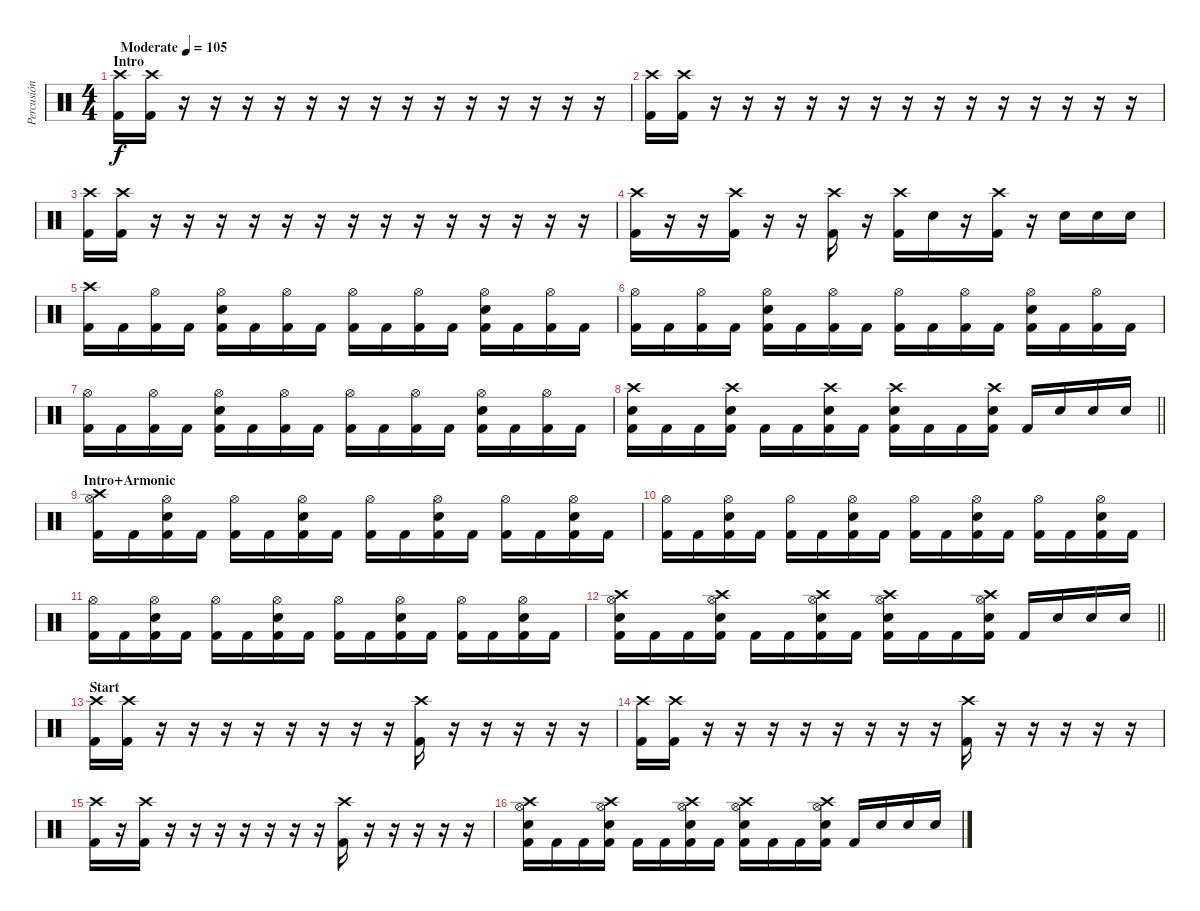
\track ("Percusión" "Percusión") {instrument percussion}
\staff {score}
\articulation defaults
\ts (4 4)
\section ("" "Intro")
\tempo (105 "Moderate")
\clef neutral
\ks c
("Crash high (hit)" "Kick (hit) 2").16{dy f} ("Crash high (hit)" "Kick (hit) 2").16 r.16 r.16 r.16 r.16 r.16 r.16 r.16 r.16 r.16 r.16 r.16 r.16 r.16 r.16 |
("Crash high (hit)" "Kick (hit) 2").16 ("Crash high (hit)" "Kick (hit) 2").16 r.16 r.16 r.16 r.16 r.16 r.16 r.16 r.16 r.16 r.16 r.16 r.16 r.16 r.16 |
("Crash high (hit)" "Kick (hit) 2").16 ("Crash high (hit)" "Kick (hit) 2").16 r.16 r.16 r.16 r.16 r.16 r.16 r.16 r.16 r.16 r.16 r.16 r.16 r.16 r.16 |
("Crash high (hit)" "Kick (hit) 2").16 r.16 r.16 ("Crash high (hit)" "Kick (hit) 2").16 r.16 r.16 ("Crash high (hit)" "Kick (hit) 2").16 r.16 ("Crash high (hit)" "Kick (hit) 2").16 "Snare (hit) 2".16 r.16 ("Crash high (hit)" "Kick (hit) 2").16 r.16 "Snare (hit) 2".16 "Snare (hit) 2".16 "Snare (hit) 2".16 |
("Crash high (hit)" "Kick (hit) 2").16 "Kick (hit) 2".16 ("Hi-Hat (open)" "Kick (hit) 2").16 "Kick (hit) 2".16 ("Hi-Hat (open)" "Snare (hit) 2" "Kick (hit) 2").16 "Kick (hit) 2".16 ("Hi-Hat (open)" "Kick (hit) 2").16 "Kick (hit) 2".16 ("Hi-Hat (open)" "Kick (hit) 2").16 "Kick (hit) 2".16 ("Hi-Hat (open)" "Kick (hit) 2").16 "Kick (hit) 2".16 ("Hi-Hat (open)" "Snare (hit) 2" "Kick (hit) 2").16 "Kick (hit) 2".16 ("Hi-Hat (open)" "Kick (hit) 2").16 "Kick (hit) 2".16 |
("Hi-Hat (open)" "Kick (hit) 2").16 "Kick (hit) 2".16 ("Hi-Hat (open)" "Kick (hit) 2").16 "Kick (hit) 2".16 ("Hi-Hat (open)" "Snare (hit) 2" "Kick (hit) 2").16 "Kick (hit) 2".16 ("Hi-Hat (open)" "Kick (hit) 2").16 "Kick (hit) 2".16 ("Hi-Hat (open)" "Kick (hit) 2").16 "Kick (hit) 2".16 ("Hi-Hat (open)" "Kick (hit) 2").16 "Kick (hit) 2".16 ("Hi-Hat (open)" "Snare (hit) 2" "Kick (hit) 2").16 "Kick (hit) 2".16 ("Hi-Hat (open)" "Kick (hit) 2").16 "Kick (hit) 2".16 |
("Hi-Hat (open)" "Kick (hit) 2").16 "Kick (hit) 2".16 ("Hi-Hat (open)" "Kick (hit) 2").16 "Kick (hit) 2".16 ("Hi-Hat (open)" "Snare (hit) 2" "Kick (hit) 2").16 "Kick (hit) 2".16 ("Hi-Hat (open)" "Kick (hit) 2").16 "Kick (hit) 2".16 ("Hi-Hat (open)" "Kick (hit) 2").16 "Kick (hit) 2".16 ("Hi-Hat (open)" "Kick (hit) 2").16 "Kick (hit) 2".16 ("Hi-Hat (open)" "Snare (hit) 2" "Kick (hit) 2").16 "Kick (hit) 2".16 ("Hi-Hat (open)" "Kick (hit) 2").16 "Kick (hit) 2".16 |
\barLineRight lightlight
("Crash high (hit)" "Snare (hit) 2" "Kick (hit) 2").16 "Kick (hit) 2".16 "Kick (hit) 2".16 ("Crash high (hit)" "Snare (hit) 2" "Kick (hit) 2").16 "Kick (hit) 2".16 "Kick (hit) 2".16 ("Crash high (hit)" "Snare (hit) 2" "Kick (hit) 2").16 "Kick (hit) 2".16 ("Crash high (hit)" "Snare (hit) 2" "Kick (hit) 2").16 "Kick (hit) 2".16 "Kick (hit) 2".16 ("Crash high (hit)" "Snare (hit) 2" "Kick (hit) 2").16 "Kick (hit) 2".16 "Snare (hit) 2".16 "Snare (hit) 2".16 "Snare (hit) 2".16 |
\section ("" "Intro+Armonic")
("Crash high (hit)" "Hi-Hat (open)" "Kick (hit) 2").16 "Kick (hit) 2".16 ("Hi-Hat (open)" "Snare (hit) 2" "Kick (hit) 2").16 "Kick (hit) 2".16 ("Hi-Hat (open)" "Kick (hit) 2").16 "Kick (hit) 2".16 ("Hi-Hat (open)" "Snare (hit) 2" "Kick (hit) 2").16 "Kick (hit) 2".16 ("Hi-Hat (open)" "Kick (hit) 2").16 "Kick (hit) 2".16 ("Hi-Hat (open)" "Snare (hit) 2" "Kick (hit) 2").16 "Kick (hit) 2".16 ("Hi-Hat (open)" "Kick (hit) 2").16 "Kick (hit) 2".16 ("Hi-Hat (open)" "Snare (hit) 2" "Kick (hit) 2").16 "Kick (hit) 2".16 |
("Hi-Hat (open)" "Kick (hit) 2").16 "Kick (hit) 2".16 ("Hi-Hat (open)" "Snare (hit) 2" "Kick (hit) 2").16 "Kick (hit) 2".16 ("Hi-Hat (open)" "Kick (hit) 2").16 "Kick (hit) 2".16 ("Hi-Hat (open)" "Snare (hit) 2" "Kick (hit) 2").16 "Kick (hit) 2".16 ("Hi-Hat (open)" "Kick (hit) 2").16 "Kick (hit) 2".16 ("Hi-Hat (open)" "Snare (hit) 2" "Kick (hit) 2").16 "Kick (hit) 2".16 ("Hi-Hat (open)" "Kick (hit) 2").16 "Kick (hit) 2".16 ("Hi-Hat (open)" "Snare (hit) 2" "Kick (hit) 2").16 "Kick (hit) 2".16 |
("Hi-Hat (open)" "Kick (hit) 2").16 "Kick (hit) 2".16 ("Hi-Hat (open)" "Snare (hit) 2" "Kick (hit) 2").16 "Kick (hit) 2".16 ("Hi-Hat (open)" "Kick (hit) 2").16 "Kick (hit) 2".16 ("Hi-Hat (open)" "Snare (hit) 2" "Kick (hit) 2").16 "Kick (hit) 2".16 ("Hi-Hat (open)" "Kick (hit) 2").16 "Kick (hit) 2".16 ("Hi-Hat (open)" "Snare (hit) 2" "Kick (hit) 2").16 "Kick (hit) 2".16 ("Hi-Hat (open)" "Kick (hit) 2").16 "Kick (hit) 2".16 ("Hi-Hat (open)" "Snare (hit) 2" "Kick (hit) 2").16 "Kick (hit) 2".16 |
\barLineRight lightlight
("Crash high (hit)" "Hi-Hat (open)" "Snare (hit) 2" "Kick (hit) 2").16 "Kick (hit) 2".16 "Kick (hit) 2".16 ("Crash high (hit)" "Hi-Hat (open)" "Snare (hit) 2" "Kick (hit) 2").16 "Kick (hit) 2".16 "Kick (hit) 2".16 ("Crash high (hit)" "Hi-Hat (open)" "Snare (hit) 2" "Kick (hit) 2").16 "Kick (hit) 2".16 ("Crash high (hit)" "Hi-Hat (open)" "Snare (hit) 2" "Kick (hit) 2").16 "Kick (hit) 2".16 "Kick (hit) 2".16 ("Crash high (hit)" "Hi-Hat (open)" "Snare (hit) 2" "Kick (hit) 2").16 "Kick (hit) 2".16 "Snare (hit) 2".16 "Snare (hit) 2".16 "Snare (hit) 2".16 |
\section ("" "Start")
("Crash high (hit)" "Kick (hit) 2").16 ("Crash high (hit)" "Kick (hit) 2").16 r.16 r.16 r.16 r.16 r.16 r.16 r.16 r.16 ("Crash high (hit)" "Kick (hit) 2").16 r.16 r.16 r.16 r.16 r.16 |
("Crash high (hit)" "Kick (hit) 2").16 ("Crash high (hit)" "Kick (hit) 2").16 r.16 r.16 r.16 r.16 r.16 r.16 r.16 r.16 ("Crash high (hit)" "Kick (hit) 2").16 r.16 r.16 r.16 r.16 r.16 |
("Crash high (hit)" "Kick (hit) 2").16 r.16 ("Crash high (hit)" "Kick (hit) 2").16 r.16 r.16 r.16 r.16 r.16 r.16 r.16 ("Crash high (hit)" "Kick (hit) 2").16 r.16 r.16 r.16 r.16 r.16 |
("Crash high (hit)" "Hi-Hat (open)" "Snare (hit) 2" "Kick (hit) 2").16 "Kick (hit) 2".16 "Kick (hit) 2".16 ("Crash high (hit)" "Hi-Hat (open)" "Snare (hit) 2" "Kick (hit) 2").16 "Kick (hit) 2".16 "Kick (hit) 2".16 ("Crash high (hit)" "Hi-Hat (open)" "Snare (hit) 2" "Kick (hit) 2").16 "Kick (hit) 2".16 ("Crash high (hit)" "Hi-Hat (open)" "Snare (hit) 2" "Kick (hit) 2").16 "Kick (hit) 2".16 "Kick (hit) 2".16 ("Crash high (hit)" "Hi-Hat (open)" "Snare (hit) 2" "Kick (hit) 2").16 "Kick (hit) 2".16 "Snare (hit) 2".16 "Snare (hit) 2".16 "Snare (hit) 2".16
